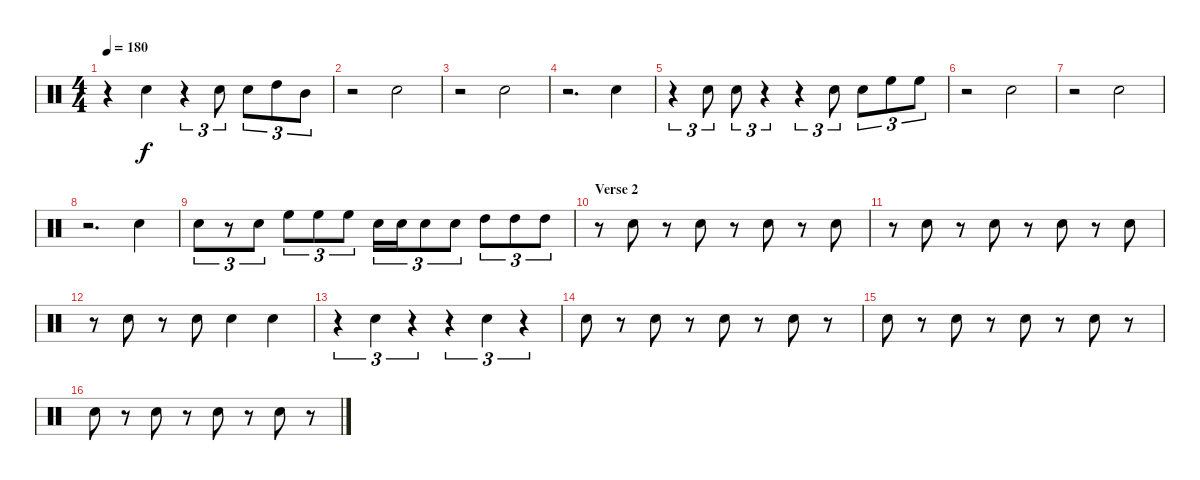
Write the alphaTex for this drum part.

\track "" {instrument percussion}
\staff {score}
\articulation defaults
\ts (4 4)
\tempo 180
\clef neutral
\ks c
r.4{dy f} "Electric Snare (hit)".4 r.4{tu (3 2)} "Electric Snare (hit)".8{tu (3 2)} "Electric Snare (hit)".8{tu (3 2)} "High Tom (hit)".8{tu (3 2)} "Mid Tom (hit)".8{tu (3 2)} |
r.2 "Electric Snare (hit)".2 |
r.2 "Electric Snare (hit)".2 |
r.2{d} "Electric Snare (hit)".4 |
r.4{tu (3 2)} "Electric Snare (hit)".8{tu (3 2)} "Electric Snare (hit)".8{tu (3 2)} r.4{tu (3 2)} r.4{tu (3 2)} "Electric Snare (hit)".8{tu (3 2)} "Electric Snare (hit)".8{tu (3 2)} "High Floor Tom (hit)".8{tu (3 2)} "High Floor Tom (hit)".8{tu (3 2)} |
r.2 "Electric Snare (hit)".2 |
r.2 "Electric Snare (hit)".2 |
r.2{d} "Electric Snare (hit)".4 |
"Electric Snare (hit)".8{tu (3 2)} r.8{tu (3 2)} "Electric Snare (hit)".8{tu (3 2)} "High Floor Tom (hit)".8{tu (3 2)} "High Floor Tom (hit)".8{tu (3 2)} "High Floor Tom (hit)".8{tu (3 2)} "Electric Snare (hit)".16{tu (3 2)} "Electric Snare (hit)".16{tu (3 2)} "Electric Snare (hit)".8{tu (3 2)} "Electric Snare (hit)".8{tu (3 2)} "High Tom (hit)".8{tu (3 2)} "High Tom (hit)".8{tu (3 2)} "High Tom (hit)".8{tu (3 2)} |
\section ("" "Verse 2")
r.8 "Electric Snare (hit)".8 r.8 "Electric Snare (hit)".8 r.8 "Electric Snare (hit)".8 r.8 "Electric Snare (hit)".8 |
r.8 "Electric Snare (hit)".8 r.8 "Electric Snare (hit)".8 r.8 "Electric Snare (hit)".8 r.8 "Electric Snare (hit)".8 |
r.8 "Electric Snare (hit)".8 r.8 "Electric Snare (hit)".8 "Electric Snare (hit)".4 "Electric Snare (hit)".4 |
r.4{tu (3 2)} "Electric Snare (hit)".4{tu (3 2)} r.4{tu (3 2)} r.4{tu (3 2)} "Electric Snare (hit)".4{tu (3 2)} r.4{tu (3 2)} |
"Electric Snare (hit)".8 r.8 "Electric Snare (hit)".8 r.8 "Electric Snare (hit)".8 r.8 "Electric Snare (hit)".8 r.8 |
"Electric Snare (hit)".8 r.8 "Electric Snare (hit)".8 r.8 "Electric Snare (hit)".8 r.8 "Electric Snare (hit)".8 r.8 |
"Electric Snare (hit)".8 r.8 "Electric Snare (hit)".8 r.8 "Electric Snare (hit)".8 r.8 "Electric Snare (hit)".8 r.8
